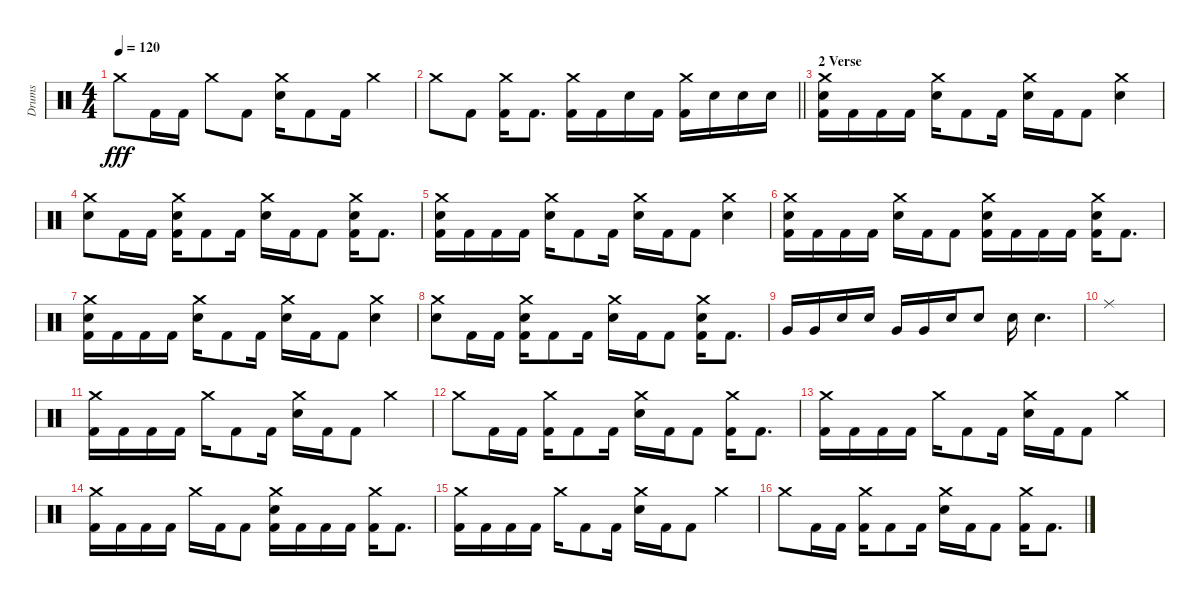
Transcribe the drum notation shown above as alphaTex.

\track ("Drums" "Drums") {instrument percussion}
\staff {score}
\articulation defaults
\ts (4 4)
\tempo 120
\clef neutral
\ks c "Crash medium (hit)".8{dy fff} "Kick (hit) 2".16 "Kick (hit) 2".16 "Crash medium (hit)".8 "Kick (hit) 2".8
("Crash medium (hit)" "Electric Snare (hit)").16 "Kick (hit) 2".8 "Kick (hit) 2".16 "Crash medium (hit)".4 |
\barLineRight lightlight "Crash medium (hit)".8 "Kick (hit) 2".8
("Crash medium (hit)" "Kick (hit) 2").16 "Kick (hit) 2".8{d} ("Crash medium (hit)" "Kick (hit) 2").16 "Kick (hit) 2".16 "Electric Snare (hit)".16 "Kick (hit) 2".16 ("Crash medium (hit)" "Kick (hit) 2").16 "Electric Snare (hit)".16 "Electric Snare (hit)".16 "Electric Snare (hit)".16 |
\section ("" "2 Verse")
("Crash medium (hit)" "Electric Snare (hit)" "Kick (hit) 2").16 "Kick (hit) 2".16 "Kick (hit) 2".16 "Kick (hit) 2".16 ("Crash medium (hit)" "Electric Snare (hit)").16 "Kick (hit) 2".8 "Kick (hit) 2".16 ("Crash medium (hit)" "Electric Snare (hit)").16 "Kick (hit) 2".16 "Kick (hit) 2".8 ("Crash medium (hit)" "Electric Snare (hit)").4 |
("Crash medium (hit)" "Electric Snare (hit)").8 "Kick (hit) 2".16 "Kick (hit) 2".16 ("Crash medium (hit)" "Electric Snare (hit)" "Kick (hit) 2").16 "Kick (hit) 2".8 "Kick (hit) 2".16 ("Crash medium (hit)" "Electric Snare (hit)").16 "Kick (hit) 2".16 "Kick (hit) 2".8 ("Crash medium (hit)" "Electric Snare (hit)" "Kick (hit) 2").16 "Kick (hit) 2".8{d} |
("Crash medium (hit)" "Electric Snare (hit)" "Kick (hit) 2").16 "Kick (hit) 2".16 "Kick (hit) 2".16 "Kick (hit) 2".16 ("Crash medium (hit)" "Electric Snare (hit)").16 "Kick (hit) 2".8 "Kick (hit) 2".16 ("Crash medium (hit)" "Electric Snare (hit)").16 "Kick (hit) 2".16 "Kick (hit) 2".8 ("Crash medium (hit)" "Electric Snare (hit)").4 |
("Crash medium (hit)" "Electric Snare (hit)" "Kick (hit) 2").16 "Kick (hit) 2".16 "Kick (hit) 2".16 "Kick (hit) 2".16 ("Crash medium (hit)" "Electric Snare (hit)").16 "Kick (hit) 2".16 "Kick (hit) 2".8 ("Crash medium (hit)" "Electric Snare (hit)" "Kick (hit) 2").16 "Kick (hit) 2".16 "Kick (hit) 2".16 "Kick (hit) 2".16 ("Crash medium (hit)" "Electric Snare (hit)" "Kick (hit) 2").16 "Kick (hit) 2".8{d} |
("Crash medium (hit)" "Electric Snare (hit)" "Kick (hit) 2").16 "Kick (hit) 2".16 "Kick (hit) 2".16 "Kick (hit) 2".16 ("Crash medium (hit)" "Electric Snare (hit)").16 "Kick (hit) 2".8 "Kick (hit) 2".16 ("Crash medium (hit)" "Electric Snare (hit)").16 "Kick (hit) 2".16 "Kick (hit) 2".8 ("Crash medium (hit)" "Electric Snare (hit)").4 |
("Crash medium (hit)" "Electric Snare (hit)").8 "Kick (hit) 2".16 "Kick (hit) 2".16 ("Crash medium (hit)" "Electric Snare (hit)" "Kick (hit) 2").16 "Kick (hit) 2".8 "Kick (hit) 2".16 ("Crash medium (hit)" "Electric Snare (hit)").16 "Kick (hit) 2".16 "Kick (hit) 2".8 ("Crash medium (hit)" "Electric Snare (hit)" "Kick (hit) 2").16 "Kick (hit) 2".8{d} |
"Very Low Tom (hit)".16 "Very Low Tom (hit)".16 "Electric Snare (hit)".16 "Electric Snare (hit)".16 "Very Low Tom (hit)".16 "Very Low Tom (hit)".16 "Electric Snare (hit)".16 "Electric Snare (hit)".8 "Electric Snare (hit)".16 "Electric Snare (hit)".4{d} |
"Ride (middle)".1 |
("Crash medium (hit)" "Kick (hit) 2").16 "Kick (hit) 2".16 "Kick (hit) 2".16 "Kick (hit) 2".16 "Crash medium (hit)".16 "Kick (hit) 2".8 "Kick (hit) 2".16 ("Crash medium (hit)" "Electric Snare (hit)").16 "Kick (hit) 2".16 "Kick (hit) 2".8 "Crash medium (hit)".4 |
"Crash medium (hit)".8 "Kick (hit) 2".16 "Kick (hit) 2".16 ("Crash medium (hit)" "Kick (hit) 2").16 "Kick (hit) 2".8 "Kick (hit) 2".16 ("Crash medium (hit)" "Electric Snare (hit)").16 "Kick (hit) 2".16 "Kick (hit) 2".8 ("Crash medium (hit)" "Kick (hit) 2").16 "Kick (hit) 2".8{d} |
("Crash medium (hit)" "Kick (hit) 2").16 "Kick (hit) 2".16 "Kick (hit) 2".16 "Kick (hit) 2".16 "Crash medium (hit)".16 "Kick (hit) 2".8 "Kick (hit) 2".16 ("Crash medium (hit)" "Electric Snare (hit)").16 "Kick (hit) 2".16 "Kick (hit) 2".8 "Crash medium (hit)".4 |
("Crash medium (hit)" "Kick (hit) 2").16 "Kick (hit) 2".16 "Kick (hit) 2".16 "Kick (hit) 2".16 "Crash medium (hit)".16 "Kick (hit) 2".16 "Kick (hit) 2".8 ("Crash medium (hit)" "Electric Snare (hit)" "Kick (hit) 2").16 "Kick (hit) 2".16 "Kick (hit) 2".16 "Kick (hit) 2".16 ("Crash medium (hit)" "Kick (hit) 2").16 "Kick (hit) 2".8{d} |
("Crash medium (hit)" "Kick (hit) 2").16 "Kick (hit) 2".16 "Kick (hit) 2".16 "Kick (hit) 2".16 "Crash medium (hit)".16 "Kick (hit) 2".8 "Kick (hit) 2".16 ("Crash medium (hit)" "Electric Snare (hit)").16 "Kick (hit) 2".16 "Kick (hit) 2".8 "Crash medium (hit)".4 |
"Crash medium (hit)".8 "Kick (hit) 2".16 "Kick (hit) 2".16 ("Crash medium (hit)" "Kick (hit) 2").16 "Kick (hit) 2".8 "Kick (hit) 2".16 ("Crash medium (hit)" "Electric Snare (hit)").16 "Kick (hit) 2".16 "Kick (hit) 2".8 ("Crash medium (hit)" "Kick (hit) 2").16 "Kick (hit) 2".8{d}
